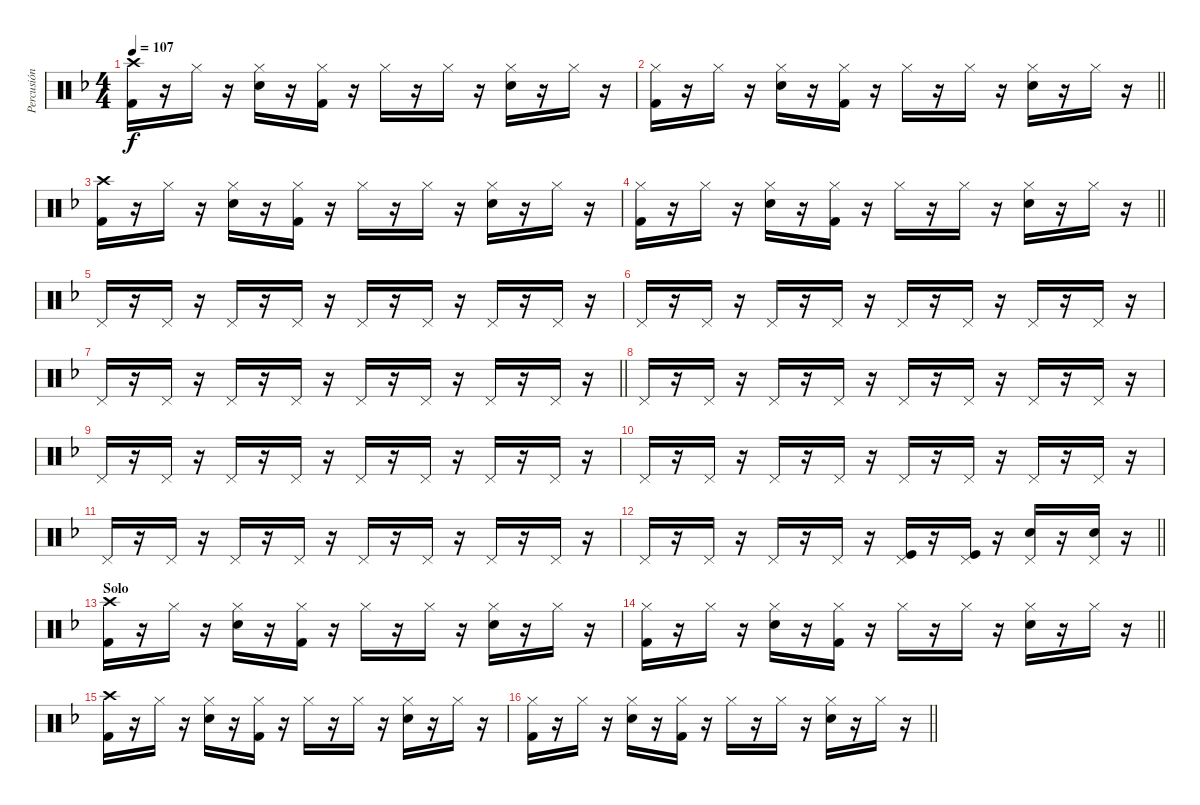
\track ("Percusión" "Percusión") {instrument percussion}
\staff {score}
\articulation defaults
\ts (4 4)
\tempo 107
\clef neutral
\ks f
("Crash high (hit)" "Kick (hit) 2").16{dy f} r.16 "Hi-Hat (closed)".16 r.16 ("Hi-Hat (closed)" "Snare (hit) 2").16 r.16 ("Hi-Hat (closed)" "Kick (hit) 2").16 r.16 "Hi-Hat (closed)".16 r.16 "Hi-Hat (closed)".16 r.16 ("Hi-Hat (closed)" "Snare (hit) 2").16 r.16 "Hi-Hat (closed)".16 r.16 |
\barLineRight lightlight
("Hi-Hat (closed)" "Kick (hit) 2").16 r.16 "Hi-Hat (closed)".16 r.16 ("Hi-Hat (closed)" "Snare (hit) 2").16 r.16 ("Hi-Hat (closed)" "Kick (hit) 2").16 r.16 "Hi-Hat (closed)".16 r.16 "Hi-Hat (closed)".16 r.16 ("Hi-Hat (closed)" "Snare (hit) 2").16 r.16 "Hi-Hat (closed)".16 r.16 |
("Crash high (hit)" "Kick (hit) 2").16 r.16 "Hi-Hat (closed)".16 r.16 ("Hi-Hat (closed)" "Snare (hit) 2").16 r.16 ("Hi-Hat (closed)" "Kick (hit) 2").16 r.16 "Hi-Hat (closed)".16 r.16 "Hi-Hat (closed)".16 r.16 ("Hi-Hat (closed)" "Snare (hit) 2").16 r.16 "Hi-Hat (closed)".16 r.16 |
\barLineRight lightlight
("Hi-Hat (closed)" "Kick (hit) 2").16 r.16 "Hi-Hat (closed)".16 r.16 ("Hi-Hat (closed)" "Snare (hit) 2").16 r.16 ("Hi-Hat (closed)" "Kick (hit) 2").16 r.16 "Hi-Hat (closed)".16 r.16 "Hi-Hat (closed)".16 r.16 ("Hi-Hat (closed)" "Snare (hit) 2").16 r.16 "Hi-Hat (closed)".16 r.16 |
"Pedal Hi-Hat (hit)".16{volume 4} r.16 "Pedal Hi-Hat (hit)".16 r.16 "Pedal Hi-Hat (hit)".16 r.16 "Pedal Hi-Hat (hit)".16 r.16 "Pedal Hi-Hat (hit)".16 r.16 "Pedal Hi-Hat (hit)".16 r.16 "Pedal Hi-Hat (hit)".16 r.16 "Pedal Hi-Hat (hit)".16 r.16 |
"Pedal Hi-Hat (hit)".16 r.16 "Pedal Hi-Hat (hit)".16 r.16 "Pedal Hi-Hat (hit)".16 r.16 "Pedal Hi-Hat (hit)".16 r.16 "Pedal Hi-Hat (hit)".16 r.16 "Pedal Hi-Hat (hit)".16 r.16 "Pedal Hi-Hat (hit)".16 r.16 "Pedal Hi-Hat (hit)".16 r.16 |
\barLineRight lightlight "Pedal Hi-Hat (hit)".16
r.16 "Pedal Hi-Hat (hit)".16 r.16 "Pedal Hi-Hat (hit)".16 r.16 "Pedal Hi-Hat (hit)".16 r.16 "Pedal Hi-Hat (hit)".16 r.16 "Pedal Hi-Hat (hit)".16 r.16 "Pedal Hi-Hat (hit)".16 r.16 "Pedal Hi-Hat (hit)".16 r.16 |
"Pedal Hi-Hat (hit)".16 r.16 "Pedal Hi-Hat (hit)".16 r.16 "Pedal Hi-Hat (hit)".16 r.16 "Pedal Hi-Hat (hit)".16 r.16 "Pedal Hi-Hat (hit)".16 r.16 "Pedal Hi-Hat (hit)".16 r.16 "Pedal Hi-Hat (hit)".16 r.16 "Pedal Hi-Hat (hit)".16 r.16 |
"Pedal Hi-Hat (hit)".16 r.16 "Pedal Hi-Hat (hit)".16 r.16 "Pedal Hi-Hat (hit)".16 r.16 "Pedal Hi-Hat (hit)".16 r.16 "Pedal Hi-Hat (hit)".16 r.16 "Pedal Hi-Hat (hit)".16 r.16 "Pedal Hi-Hat (hit)".16 r.16 "Pedal Hi-Hat (hit)".16 r.16 |
"Pedal Hi-Hat (hit)".16 r.16 "Pedal Hi-Hat (hit)".16 r.16 "Pedal Hi-Hat (hit)".16 r.16 "Pedal Hi-Hat (hit)".16 r.16 "Pedal Hi-Hat (hit)".16 r.16 "Pedal Hi-Hat (hit)".16 r.16 "Pedal Hi-Hat (hit)".16 r.16 "Pedal Hi-Hat (hit)".16 r.16 |
"Pedal Hi-Hat (hit)".16{volume 4} r.16 "Pedal Hi-Hat (hit)".16 r.16 "Pedal Hi-Hat (hit)".16 r.16 "Pedal Hi-Hat (hit)".16 r.16 "Pedal Hi-Hat (hit)".16 r.16 "Pedal Hi-Hat (hit)".16 r.16 "Pedal Hi-Hat (hit)".16 r.16 "Pedal Hi-Hat (hit)".16 r.16 |
\barLineRight lightlight "Pedal Hi-Hat (hit)".16
r.16 "Pedal Hi-Hat (hit)".16 r.16 "Pedal Hi-Hat (hit)".16 r.16 "Pedal Hi-Hat (hit)".16 r.16 ("Pedal Hi-Hat (hit)" "Kick (hit)").16 r.16 ("Pedal Hi-Hat (hit)" "Kick (hit)").16 r.16 ("Pedal Hi-Hat (hit)" "Electric Snare (hit)").16 r.16 ("Pedal Hi-Hat (hit)" "Electric Snare (hit)").16 r.16 |
\section ("" "Solo")
("Crash high (hit)" "Kick (hit) 2").16 r.16 "Hi-Hat (closed)".16 r.16 ("Hi-Hat (closed)" "Snare (hit) 2").16 r.16 ("Hi-Hat (closed)" "Kick (hit) 2").16 r.16 "Hi-Hat (closed)".16 r.16 "Hi-Hat (closed)".16 r.16 ("Hi-Hat (closed)" "Snare (hit) 2").16 r.16 "Hi-Hat (closed)".16 r.16 |
\barLineRight lightlight
("Hi-Hat (closed)" "Kick (hit) 2").16 r.16 "Hi-Hat (closed)".16 r.16 ("Hi-Hat (closed)" "Snare (hit) 2").16 r.16 ("Hi-Hat (closed)" "Kick (hit) 2").16 r.16 "Hi-Hat (closed)".16 r.16 "Hi-Hat (closed)".16 r.16 ("Hi-Hat (closed)" "Snare (hit) 2").16 r.16 "Hi-Hat (closed)".16 r.16 |
("Crash high (hit)" "Kick (hit) 2").16 r.16 "Hi-Hat (closed)".16 r.16 ("Hi-Hat (closed)" "Snare (hit) 2").16 r.16 ("Hi-Hat (closed)" "Kick (hit) 2").16 r.16 "Hi-Hat (closed)".16 r.16 "Hi-Hat (closed)".16 r.16 ("Hi-Hat (closed)" "Snare (hit) 2").16 r.16 "Hi-Hat (closed)".16 r.16 |
\barLineRight lightlight
("Hi-Hat (closed)" "Kick (hit) 2").16 r.16 "Hi-Hat (closed)".16 r.16 ("Hi-Hat (closed)" "Snare (hit) 2").16 r.16 ("Hi-Hat (closed)" "Kick (hit) 2").16 r.16 "Hi-Hat (closed)".16 r.16 "Hi-Hat (closed)".16 r.16 ("Hi-Hat (closed)" "Snare (hit) 2").16 r.16 "Hi-Hat (closed)".16 r.16
